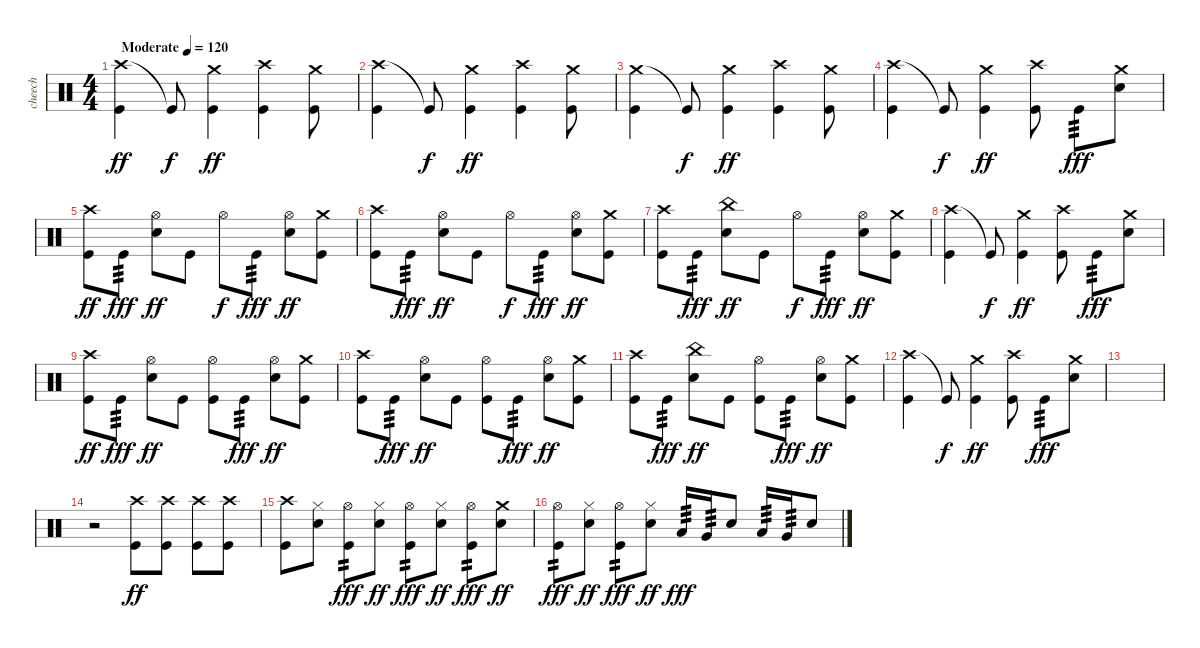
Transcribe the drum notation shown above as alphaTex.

\track ("cheech" "cheech") {instrument percussion}
\staff {score}
\articulation defaults
\ts (4 4)
\tempo (120 "Moderate")
\clef neutral
\ks c
("Crash high (hit)" "Kick (hit)").4{dy ff} "Kick (hit)"{t}.8{dy f} ("Crash medium (hit)" "Kick (hit)").4{dy ff} ("Crash high (hit)" "Kick (hit)").4 ("Crash medium (hit)" "Kick (hit)").8 |
("Crash high (hit)" "Kick (hit)").4 "Kick (hit)"{t}.8{dy f} ("Crash medium (hit)" "Kick (hit)").4{dy ff} ("Crash high (hit)" "Kick (hit)").4 ("Crash medium (hit)" "Kick (hit)").8 |
("Crash medium (hit)" "Kick (hit)").4 "Kick (hit)"{t}.8{dy f} ("Crash medium (hit)" "Kick (hit)").4{dy ff} ("Crash high (hit)" "Kick (hit)").4 ("Crash medium (hit)" "Kick (hit)").8 |
("Crash high (hit)" "Kick (hit)").4 "Kick (hit)"{t}.8{dy f} ("Crash medium (hit)" "Kick (hit)").4{dy ff} ("Crash high (hit)" "Kick (hit)").8 "Kick (hit)".8{tp 3 dy fff} ("Crash medium (hit)" "Electric Snare (hit)").8 |
("Crash high (hit)" "Kick (hit)").8{dy ff} "Kick (hit)".8{tp 3 dy fff} ("Hi-Hat (open)" "Electric Snare (hit)").8{dy ff} "Kick (hit)".8 "Hi-Hat (open)".8{dy f} "Kick (hit)".8{tp 3 dy fff} ("Hi-Hat (open)" "Electric Snare (hit)").8{dy ff} ("Crash medium (hit)" "Kick (hit)").8 |
("Crash high (hit)" "Kick (hit)").8 "Kick (hit)".8{tp 3 dy fff} ("Hi-Hat (open)" "Electric Snare (hit)").8{dy ff} "Kick (hit)".8 "Hi-Hat (open)".8{dy f} "Kick (hit)".8{tp 3 dy fff} ("Hi-Hat (open)" "Electric Snare (hit)").8{dy ff} ("Crash medium (hit)" "Kick (hit)").8 |
("Crash high (hit)" "Kick (hit)").8 "Kick (hit)".8{tp 3 dy fff} ("China (hit)" "Electric Snare (hit)").8{dy ff} "Kick (hit)".8 "Hi-Hat (open)".8{dy f} "Kick (hit)".8{tp 3 dy fff} ("Hi-Hat (open)" "Electric Snare (hit)").8{dy ff} ("Crash medium (hit)" "Kick (hit)").8 |
("Crash high (hit)" "Kick (hit)").4 "Kick (hit)"{t}.8{dy f} ("Crash medium (hit)" "Kick (hit)").4{dy ff} ("Crash high (hit)" "Kick (hit)").8 "Kick (hit)".8{tp 3 dy fff} ("Crash medium (hit)" "Electric Snare (hit)").8 |
("Crash high (hit)" "Kick (hit)").8{dy ff} "Kick (hit)".8{tp 3 dy fff} ("Hi-Hat (open)" "Electric Snare (hit)").8{dy ff} "Kick (hit)".8 ("Hi-Hat (open)" "Kick (hit)").8 "Kick (hit)".8{tp 3 dy fff} ("Hi-Hat (open)" "Electric Snare (hit)").8{dy ff} ("Crash medium (hit)" "Kick (hit)").8 |
("Crash high (hit)" "Kick (hit)").8 "Kick (hit)".8{tp 3 dy fff} ("Hi-Hat (open)" "Electric Snare (hit)").8{dy ff} "Kick (hit)".8 ("Hi-Hat (open)" "Kick (hit)").8 "Kick (hit)".8{tp 3 dy fff} ("Hi-Hat (open)" "Electric Snare (hit)").8{dy ff} ("Crash medium (hit)" "Kick (hit)").8 |
("Crash high (hit)" "Kick (hit)").8 "Kick (hit)".8{tp 3 dy fff} ("China (hit)" "Electric Snare (hit)").8{dy ff} "Kick (hit)".8 ("Hi-Hat (open)" "Kick (hit)").8 "Kick (hit)".8{tp 3 dy fff} ("Hi-Hat (open)" "Electric Snare (hit)").8{dy ff} ("Crash medium (hit)" "Kick (hit)").8 |
("Crash high (hit)" "Kick (hit)").4 "Kick (hit)"{t}.8{dy f} ("Crash medium (hit)" "Kick (hit)").4{dy ff} ("Crash high (hit)" "Kick (hit)").8 "Kick (hit)".8{tp 3 dy fff} ("Crash medium (hit)" "Electric Snare (hit)").8 |
|
r.2 ("Crash high (hit)" "Kick (hit)").8{dy ff} ("Crash high (hit)" "Kick (hit)").8 ("Crash high (hit)" "Kick (hit)").8 ("Crash high (hit)" "Kick (hit)").8 |
("Crash high (hit)" "Kick (hit)").8 ("Hi-Hat (closed)" "Electric Snare (hit)").8 ("Hi-Hat (open)" "Kick (hit)").8{tp 2 dy fff} ("Hi-Hat (closed)" "Electric Snare (hit)").8{dy ff} ("Hi-Hat (open)" "Kick (hit)").8{tp 2 dy fff} ("Hi-Hat (closed)" "Electric Snare (hit)").8{dy ff} ("Hi-Hat (open)" "Kick (hit)").8{tp 2 dy fff} ("Crash medium (hit)" "Electric Snare (hit)").8{dy ff} |
("Hi-Hat (open)" "Kick (hit)").8{tp 2 dy fff} ("Hi-Hat (closed)" "Electric Snare (hit)").8{dy ff} ("Hi-Hat (open)" "Kick (hit)").8{tp 2 dy fff} ("Hi-Hat (closed)" "Electric Snare (hit)").8{dy ff} "Low Tom (hit)".16{tp 3 dy fff} "Very Low Tom (hit)".16{tp 3} "Electric Snare (hit)".8 "Low Tom (hit)".16{tp 3} "Very Low Tom (hit)".16{tp 3} "Electric Snare (hit)".8
